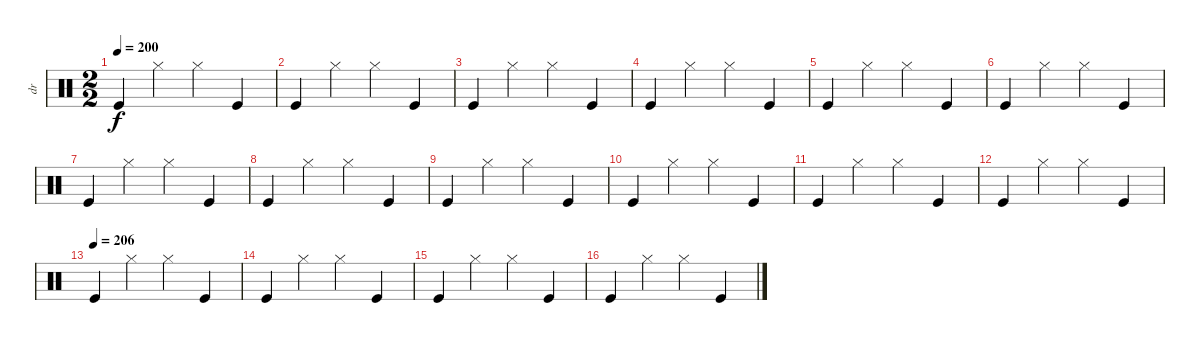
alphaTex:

\track ("dr" "dr") {instrument percussion}
\staff {score}
\articulation defaults
\ts (2 2)
\tempo 200
\clef neutral
\ks c "Kick (hit)".4{dy f} "Hi-Hat (closed)".4 "Hi-Hat (closed)".4 "Kick (hit)".4
|
"Kick (hit)".4 "Hi-Hat (closed)".4 "Hi-Hat (closed)".4 "Kick (hit)".4 |
"Kick (hit)".4 "Hi-Hat (closed)".4 "Hi-Hat (closed)".4 "Kick (hit)".4 |
"Kick (hit)".4 "Hi-Hat (closed)".4 "Hi-Hat (closed)".4 "Kick (hit)".4 |
"Kick (hit)".4 "Hi-Hat (closed)".4 "Hi-Hat (closed)".4 "Kick (hit)".4 |
"Kick (hit)".4 "Hi-Hat (closed)".4 "Hi-Hat (closed)".4 "Kick (hit)".4 |
"Kick (hit)".4 "Hi-Hat (closed)".4 "Hi-Hat (closed)".4 "Kick (hit)".4 |
"Kick (hit)".4 "Hi-Hat (closed)".4 "Hi-Hat (closed)".4 "Kick (hit)".4 |
"Kick (hit)".4 "Hi-Hat (closed)".4 "Hi-Hat (closed)".4 "Kick (hit)".4 |
"Kick (hit)".4 "Hi-Hat (closed)".4 "Hi-Hat (closed)".4 "Kick (hit)".4 |
"Kick (hit)".4 "Hi-Hat (closed)".4 "Hi-Hat (closed)".4 "Kick (hit)".4 |
"Kick (hit)".4 "Hi-Hat (closed)".4 "Hi-Hat (closed)".4 "Kick (hit)".4 |
\tempo (206)
"Kick (hit)".4 "Hi-Hat (closed)".4 "Hi-Hat (closed)".4 "Kick (hit)".4 |
"Kick (hit)".4 "Hi-Hat (closed)".4 "Hi-Hat (closed)".4 "Kick (hit)".4 |
"Kick (hit)".4 "Hi-Hat (closed)".4 "Hi-Hat (closed)".4 "Kick (hit)".4 |
"Kick (hit)".4 "Hi-Hat (closed)".4 "Hi-Hat (closed)".4 "Kick (hit)".4
